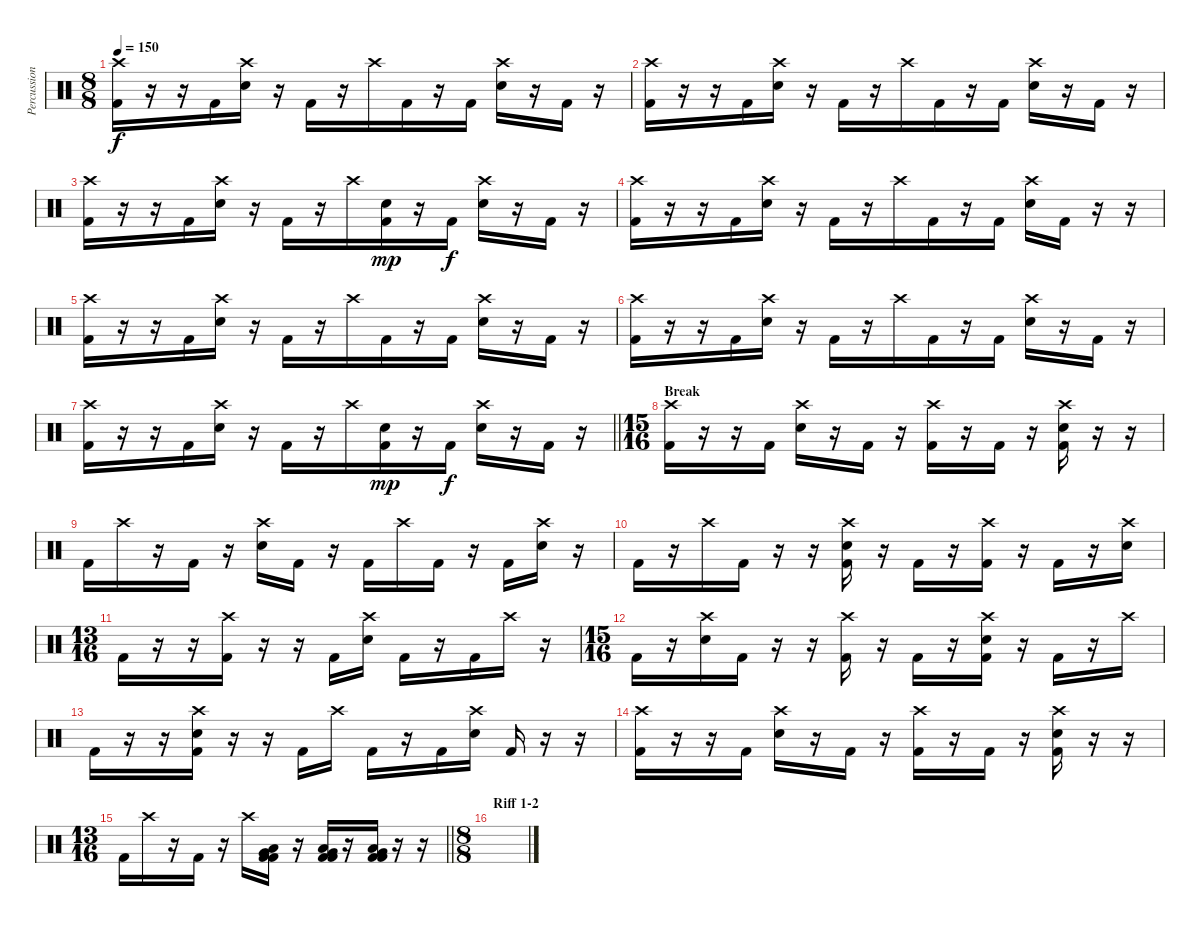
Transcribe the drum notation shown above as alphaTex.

\track ("Percussions" "Percussion") {instrument percussion}
\staff {score}
\articulation defaults
\ts (8 8)
\tempo 150
\clef neutral
\ks c
("Crash high (hit)" "Kick (hit) 2").16{dy f} r.16 r.16 "Kick (hit) 2".16 ("Crash high (hit)" "Electric Snare (hit)").16 r.16 "Kick (hit) 2".16 r.16 "Crash high (hit)".16 "Kick (hit) 2".16 r.16 "Kick (hit) 2".16 ("Crash high (hit)" "Electric Snare (hit)").16 r.16 "Kick (hit) 2".16 r.16 |
("Crash high (hit)" "Kick (hit) 2").16 r.16 r.16 "Kick (hit) 2".16 ("Crash high (hit)" "Electric Snare (hit)").16 r.16 "Kick (hit) 2".16 r.16 "Crash high (hit)".16 "Kick (hit) 2".16 r.16 "Kick (hit) 2".16 ("Crash high (hit)" "Electric Snare (hit)").16 r.16 "Kick (hit) 2".16 r.16 |
("Crash high (hit)" "Kick (hit) 2").16 r.16 r.16 "Kick (hit) 2".16 ("Crash high (hit)" "Electric Snare (hit)").16 r.16 "Kick (hit) 2".16 r.16 "Crash high (hit)".16 ("Electric Snare (hit)" "Kick (hit) 2").16{dy mp} r.16 "Kick (hit) 2".16{dy f} ("Crash high (hit)" "Electric Snare (hit)").16 r.16 "Kick (hit) 2".16 r.16 |
("Crash high (hit)" "Kick (hit) 2").16 r.16 r.16 "Kick (hit) 2".16 ("Crash high (hit)" "Electric Snare (hit)").16 r.16 "Kick (hit) 2".16 r.16 "Crash high (hit)".16 "Kick (hit) 2".16 r.16 "Kick (hit) 2".16 ("Crash high (hit)" "Electric Snare (hit)").16 "Kick (hit) 2".16 r.16 r.16 |
("Crash high (hit)" "Kick (hit) 2").16 r.16 r.16 "Kick (hit) 2".16 ("Crash high (hit)" "Electric Snare (hit)").16 r.16 "Kick (hit) 2".16 r.16 "Crash high (hit)".16 "Kick (hit) 2".16 r.16 "Kick (hit) 2".16 ("Crash high (hit)" "Electric Snare (hit)").16 r.16 "Kick (hit) 2".16 r.16 |
("Crash high (hit)" "Kick (hit) 2").16 r.16 r.16 "Kick (hit) 2".16 ("Crash high (hit)" "Electric Snare (hit)").16 r.16 "Kick (hit) 2".16 r.16 "Crash high (hit)".16 "Kick (hit) 2".16 r.16 "Kick (hit) 2".16 ("Crash high (hit)" "Electric Snare (hit)").16 r.16 "Kick (hit) 2".16 r.16 |
\barLineRight lightlight
("Crash high (hit)" "Kick (hit) 2").16 r.16 r.16 "Kick (hit) 2".16 ("Crash high (hit)" "Electric Snare (hit)").16 r.16 "Kick (hit) 2".16 r.16 "Crash high (hit)".16 ("Electric Snare (hit)" "Kick (hit) 2").16{dy mp} r.16 "Kick (hit) 2".16{dy f} ("Crash high (hit)" "Electric Snare (hit)").16 r.16 "Kick (hit) 2".16 r.16 |
\ts (15 16)
\section ("" "Break")
("Crash high (hit)" "Kick (hit) 2").16 r.16 r.16 "Kick (hit) 2".16 ("Crash high (hit)" "Electric Snare (hit)").16 r.16 "Kick (hit) 2".16 r.16 ("Crash high (hit)" "Kick (hit) 2").16 r.16 "Kick (hit) 2".16 r.16 ("Crash high (hit)" "Electric Snare (hit)" "Kick (hit) 2").16 r.16 r.16 |
"Kick (hit) 2".16 "Crash high (hit)".16 r.16 "Kick (hit) 2".16 r.16 ("Crash high (hit)" "Electric Snare (hit)").16 "Kick (hit) 2".16 r.16 "Kick (hit) 2".16 "Crash high (hit)".16 "Kick (hit) 2".16 r.16 "Kick (hit) 2".16 ("Crash high (hit)" "Electric Snare (hit)").16 r.16 |
"Kick (hit) 2".16 r.16 "Crash high (hit)".16 "Kick (hit) 2".16 r.16 r.16 ("Crash high (hit)" "Electric Snare (hit)" "Kick (hit) 2").16 r.16 "Kick (hit) 2".16 r.16 ("Crash high (hit)" "Kick (hit) 2").16 r.16 "Kick (hit) 2".16 r.16 ("Crash high (hit)" "Electric Snare (hit)").16 |
\ts (13 16)
"Kick (hit) 2".16 r.16 r.16 ("Crash high (hit)" "Kick (hit) 2").16 r.16 r.16 "Kick (hit) 2".16 ("Crash high (hit)" "Electric Snare (hit)").16 "Kick (hit) 2".16 r.16 "Kick (hit) 2".16 "Crash high (hit)".16 r.16 |
\ts (15 16)
"Kick (hit) 2".16 r.16 ("Crash high (hit)" "Electric Snare (hit)").16 "Kick (hit) 2".16 r.16 r.16 ("Crash high (hit)" "Kick (hit) 2").16 r.16 "Kick (hit) 2".16 r.16 ("Crash high (hit)" "Electric Snare (hit)" "Kick (hit) 2").16 r.16 "Kick (hit) 2".16 r.16 "Crash high (hit)".16 |
"Kick (hit) 2".16 r.16 r.16 ("Crash high (hit)" "Electric Snare (hit)" "Kick (hit) 2").16 r.16 r.16 "Kick (hit) 2".16 "Crash high (hit)".16 "Kick (hit) 2".16 r.16 "Kick (hit) 2".16 ("Crash high (hit)" "Electric Snare (hit)").16 "Kick (hit) 2".16 r.16 r.16 |
("Crash high (hit)" "Kick (hit) 2").16 r.16 r.16 "Kick (hit) 2".16 ("Crash high (hit)" "Electric Snare (hit)").16 r.16 "Kick (hit) 2".16 r.16 ("Crash high (hit)" "Kick (hit) 2").16 r.16 "Kick (hit) 2".16 r.16 ("Crash high (hit)" "Electric Snare (hit)" "Kick (hit) 2").16 r.16 r.16 |
\ts (13 16)
\barLineRight lightlight "Kick (hit) 2".16 "Crash high (hit)".16
r.16 "Kick (hit) 2".16 r.16 "Crash high (hit)".16 ("Kick (hit) 2" "Low Tom (hit)" "Very Low Tom (hit)" "Kick (hit) 2").16 r.16 ("Kick (hit) 2" "Low Tom (hit)" "Very Low Tom (hit)" "Kick (hit) 2").16 r.16 ("Kick (hit) 2" "Low Tom (hit)" "Very Low Tom (hit)" "Kick (hit) 2").16 r.16 r.16 |
\ts (8 8)
\section ("" "Riff 1-2")
